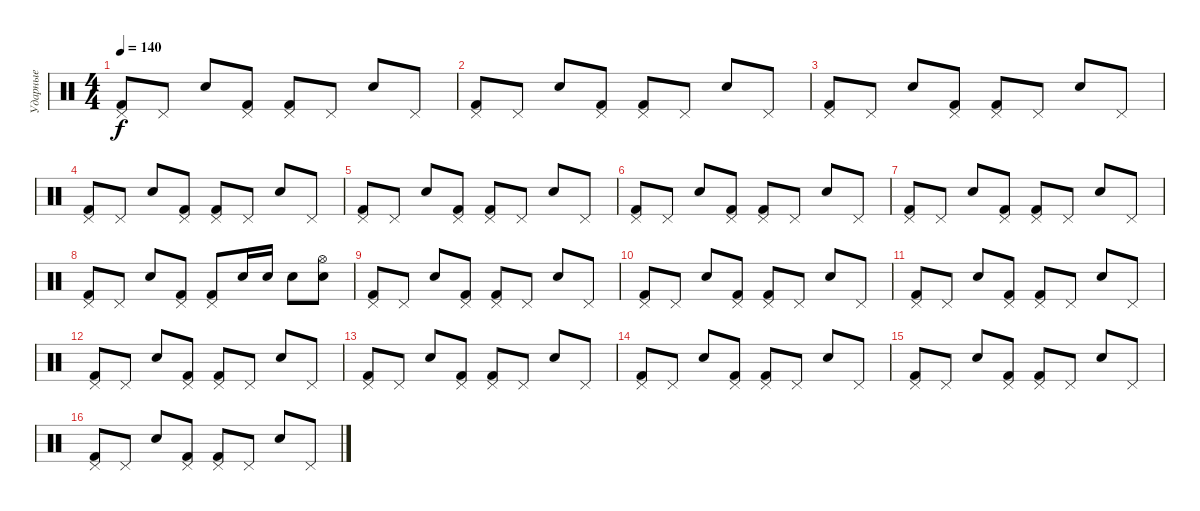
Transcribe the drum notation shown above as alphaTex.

\track ("Ударные" "Ударные") {instrument percussion}
\staff {score}
\articulation defaults
\ts (4 4)
\tempo 140
\clef neutral
\ks c
("Kick (hit) 2" "Pedal Hi-Hat (hit)").8{dy f} "Pedal Hi-Hat (hit)".8 "Electric Snare (hit)".8 ("Kick (hit) 2" "Pedal Hi-Hat (hit)").8 ("Kick (hit) 2" "Pedal Hi-Hat (hit)").8 "Pedal Hi-Hat (hit)".8 "Electric Snare (hit)".8 "Pedal Hi-Hat (hit)".8 |
("Kick (hit) 2" "Pedal Hi-Hat (hit)").8 "Pedal Hi-Hat (hit)".8 "Electric Snare (hit)".8 ("Kick (hit) 2" "Pedal Hi-Hat (hit)").8 ("Kick (hit) 2" "Pedal Hi-Hat (hit)").8 "Pedal Hi-Hat (hit)".8 "Electric Snare (hit)".8 "Pedal Hi-Hat (hit)".8 |
("Kick (hit) 2" "Pedal Hi-Hat (hit)").8 "Pedal Hi-Hat (hit)".8 "Electric Snare (hit)".8 ("Kick (hit) 2" "Pedal Hi-Hat (hit)").8 ("Kick (hit) 2" "Pedal Hi-Hat (hit)").8 "Pedal Hi-Hat (hit)".8 "Electric Snare (hit)".8 "Pedal Hi-Hat (hit)".8 |
("Kick (hit) 2" "Pedal Hi-Hat (hit)").8 "Pedal Hi-Hat (hit)".8 "Electric Snare (hit)".8 ("Kick (hit) 2" "Pedal Hi-Hat (hit)").8 ("Kick (hit) 2" "Pedal Hi-Hat (hit)").8 "Pedal Hi-Hat (hit)".8 "Electric Snare (hit)".8 "Pedal Hi-Hat (hit)".8 |
("Kick (hit) 2" "Pedal Hi-Hat (hit)").8 "Pedal Hi-Hat (hit)".8 "Electric Snare (hit)".8 ("Kick (hit) 2" "Pedal Hi-Hat (hit)").8 ("Kick (hit) 2" "Pedal Hi-Hat (hit)").8 "Pedal Hi-Hat (hit)".8 "Electric Snare (hit)".8 "Pedal Hi-Hat (hit)".8 |
("Kick (hit) 2" "Pedal Hi-Hat (hit)").8 "Pedal Hi-Hat (hit)".8 "Electric Snare (hit)".8 ("Kick (hit) 2" "Pedal Hi-Hat (hit)").8 ("Kick (hit) 2" "Pedal Hi-Hat (hit)").8 "Pedal Hi-Hat (hit)".8 "Electric Snare (hit)".8 "Pedal Hi-Hat (hit)".8 |
("Kick (hit) 2" "Pedal Hi-Hat (hit)").8 "Pedal Hi-Hat (hit)".8 "Electric Snare (hit)".8 ("Kick (hit) 2" "Pedal Hi-Hat (hit)").8 ("Kick (hit) 2" "Pedal Hi-Hat (hit)").8 "Pedal Hi-Hat (hit)".8 "Electric Snare (hit)".8 "Pedal Hi-Hat (hit)".8 |
("Kick (hit) 2" "Pedal Hi-Hat (hit)").8 "Pedal Hi-Hat (hit)".8 "Electric Snare (hit)".8 ("Kick (hit) 2" "Pedal Hi-Hat (hit)").8 ("Kick (hit) 2" "Pedal Hi-Hat (hit)").8 "Electric Snare (hit)".16 "Electric Snare (hit)".16 "Electric Snare (hit)".8 ("Hi-Hat (open)" "Electric Snare (hit)").8 |
("Kick (hit) 2" "Pedal Hi-Hat (hit)").8 "Pedal Hi-Hat (hit)".8 "Electric Snare (hit)".8 ("Kick (hit) 2" "Pedal Hi-Hat (hit)").8 ("Kick (hit) 2" "Pedal Hi-Hat (hit)").8 "Pedal Hi-Hat (hit)".8 "Electric Snare (hit)".8 "Pedal Hi-Hat (hit)".8 |
("Kick (hit) 2" "Pedal Hi-Hat (hit)").8 "Pedal Hi-Hat (hit)".8 "Electric Snare (hit)".8 ("Kick (hit) 2" "Pedal Hi-Hat (hit)").8 ("Kick (hit) 2" "Pedal Hi-Hat (hit)").8 "Pedal Hi-Hat (hit)".8 "Electric Snare (hit)".8 "Pedal Hi-Hat (hit)".8 |
("Kick (hit) 2" "Pedal Hi-Hat (hit)").8 "Pedal Hi-Hat (hit)".8 "Electric Snare (hit)".8 ("Kick (hit) 2" "Pedal Hi-Hat (hit)").8 ("Kick (hit) 2" "Pedal Hi-Hat (hit)").8 "Pedal Hi-Hat (hit)".8 "Electric Snare (hit)".8 "Pedal Hi-Hat (hit)".8 |
("Kick (hit) 2" "Pedal Hi-Hat (hit)").8 "Pedal Hi-Hat (hit)".8 "Electric Snare (hit)".8 ("Kick (hit) 2" "Pedal Hi-Hat (hit)").8 ("Kick (hit) 2" "Pedal Hi-Hat (hit)").8 "Pedal Hi-Hat (hit)".8 "Electric Snare (hit)".8 "Pedal Hi-Hat (hit)".8 |
("Kick (hit) 2" "Pedal Hi-Hat (hit)").8 "Pedal Hi-Hat (hit)".8 "Electric Snare (hit)".8 ("Kick (hit) 2" "Pedal Hi-Hat (hit)").8 ("Kick (hit) 2" "Pedal Hi-Hat (hit)").8 "Pedal Hi-Hat (hit)".8 "Electric Snare (hit)".8 "Pedal Hi-Hat (hit)".8 |
("Kick (hit) 2" "Pedal Hi-Hat (hit)").8 "Pedal Hi-Hat (hit)".8 "Electric Snare (hit)".8 ("Kick (hit) 2" "Pedal Hi-Hat (hit)").8 ("Kick (hit) 2" "Pedal Hi-Hat (hit)").8 "Pedal Hi-Hat (hit)".8 "Electric Snare (hit)".8 "Pedal Hi-Hat (hit)".8 |
("Kick (hit) 2" "Pedal Hi-Hat (hit)").8 "Pedal Hi-Hat (hit)".8 "Electric Snare (hit)".8 ("Kick (hit) 2" "Pedal Hi-Hat (hit)").8 ("Kick (hit) 2" "Pedal Hi-Hat (hit)").8 "Pedal Hi-Hat (hit)".8 "Electric Snare (hit)".8 "Pedal Hi-Hat (hit)".8 |
("Kick (hit) 2" "Pedal Hi-Hat (hit)").8 "Pedal Hi-Hat (hit)".8 "Electric Snare (hit)".8 ("Kick (hit) 2" "Pedal Hi-Hat (hit)").8 ("Kick (hit) 2" "Pedal Hi-Hat (hit)").8 "Pedal Hi-Hat (hit)".8 "Electric Snare (hit)".8 "Pedal Hi-Hat (hit)".8
